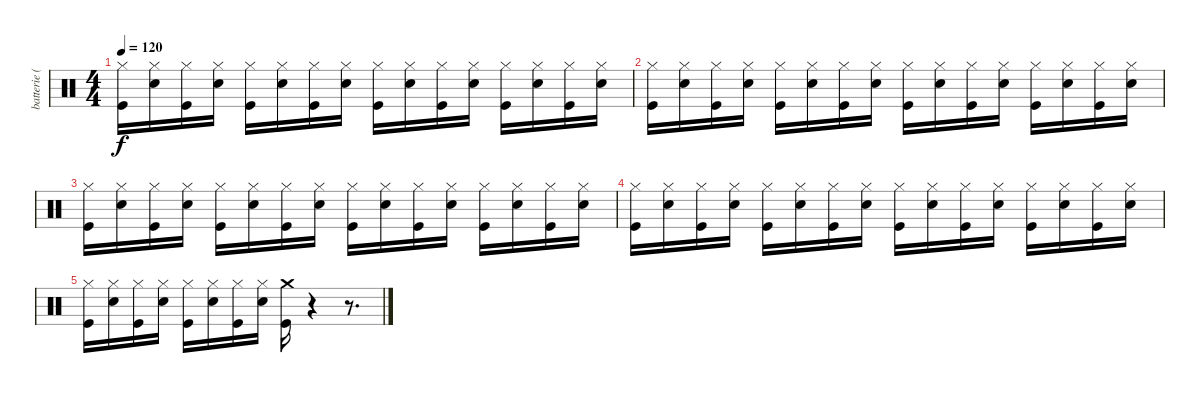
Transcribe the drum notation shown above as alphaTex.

\track ("batterie ( Jeff Nelson ) " "batterie (") {instrument percussion}
\staff {score}
\articulation defaults
\ts (4 4)
\tempo 120
\clef neutral
\ks c
("Hi-Hat (closed)" "Kick (hit)").16{dy f} ("Hi-Hat (closed)" "Snare (hit) 2").16 ("Hi-Hat (closed)" "Kick (hit)").16 ("Hi-Hat (closed)" "Snare (hit) 2").16 ("Hi-Hat (closed)" "Kick (hit)").16 ("Hi-Hat (closed)" "Snare (hit) 2").16 ("Hi-Hat (closed)" "Kick (hit)").16 ("Hi-Hat (closed)" "Snare (hit) 2").16 ("Hi-Hat (closed)" "Kick (hit)").16 ("Hi-Hat (closed)" "Snare (hit) 2").16 ("Hi-Hat (closed)" "Kick (hit)").16 ("Hi-Hat (closed)" "Snare (hit) 2").16 ("Hi-Hat (closed)" "Kick (hit)").16 ("Hi-Hat (closed)" "Snare (hit) 2").16 ("Hi-Hat (closed)" "Kick (hit)").16 ("Hi-Hat (closed)" "Snare (hit) 2").16 |
("Hi-Hat (closed)" "Kick (hit)").16 ("Hi-Hat (closed)" "Snare (hit) 2").16 ("Hi-Hat (closed)" "Kick (hit)").16 ("Hi-Hat (closed)" "Snare (hit) 2").16 ("Hi-Hat (closed)" "Kick (hit)").16 ("Hi-Hat (closed)" "Snare (hit) 2").16 ("Hi-Hat (closed)" "Kick (hit)").16 ("Hi-Hat (closed)" "Snare (hit) 2").16 ("Hi-Hat (closed)" "Kick (hit)").16 ("Hi-Hat (closed)" "Snare (hit) 2").16 ("Hi-Hat (closed)" "Kick (hit)").16 ("Hi-Hat (closed)" "Snare (hit) 2").16 ("Hi-Hat (closed)" "Kick (hit)").16 ("Hi-Hat (closed)" "Snare (hit) 2").16 ("Hi-Hat (closed)" "Kick (hit)").16 ("Hi-Hat (closed)" "Snare (hit) 2").16 |
("Hi-Hat (closed)" "Kick (hit)").16 ("Hi-Hat (closed)" "Snare (hit) 2").16 ("Hi-Hat (closed)" "Kick (hit)").16 ("Hi-Hat (closed)" "Snare (hit) 2").16 ("Hi-Hat (closed)" "Kick (hit)").16 ("Hi-Hat (closed)" "Snare (hit) 2").16 ("Hi-Hat (closed)" "Kick (hit)").16 ("Hi-Hat (closed)" "Snare (hit) 2").16 ("Hi-Hat (closed)" "Kick (hit)").16 ("Hi-Hat (closed)" "Snare (hit) 2").16 ("Hi-Hat (closed)" "Kick (hit)").16 ("Hi-Hat (closed)" "Snare (hit) 2").16 ("Hi-Hat (closed)" "Kick (hit)").16 ("Hi-Hat (closed)" "Snare (hit) 2").16 ("Hi-Hat (closed)" "Kick (hit)").16 ("Hi-Hat (closed)" "Snare (hit) 2").16 |
("Hi-Hat (closed)" "Kick (hit)").16 ("Hi-Hat (closed)" "Snare (hit) 2").16 ("Hi-Hat (closed)" "Kick (hit)").16 ("Hi-Hat (closed)" "Snare (hit) 2").16 ("Hi-Hat (closed)" "Kick (hit)").16 ("Hi-Hat (closed)" "Snare (hit) 2").16 ("Hi-Hat (closed)" "Kick (hit)").16 ("Hi-Hat (closed)" "Snare (hit) 2").16 ("Hi-Hat (closed)" "Kick (hit)").16 ("Hi-Hat (closed)" "Snare (hit) 2").16 ("Hi-Hat (closed)" "Kick (hit)").16 ("Hi-Hat (closed)" "Snare (hit) 2").16 ("Hi-Hat (closed)" "Kick (hit)").16 ("Hi-Hat (closed)" "Snare (hit) 2").16 ("Hi-Hat (closed)" "Kick (hit)").16 ("Hi-Hat (closed)" "Snare (hit) 2").16 |
("Hi-Hat (closed)" "Kick (hit)").16 ("Hi-Hat (closed)" "Snare (hit) 2").16 ("Hi-Hat (closed)" "Kick (hit)").16 ("Hi-Hat (closed)" "Snare (hit) 2").16 ("Hi-Hat (closed)" "Kick (hit)").16 ("Hi-Hat (closed)" "Snare (hit) 2").16 ("Hi-Hat (closed)" "Kick (hit)").16 ("Hi-Hat (closed)" "Snare (hit) 2").16 ("Crash medium (hit)" "Kick (hit)").16 r.4 r.8{d}
